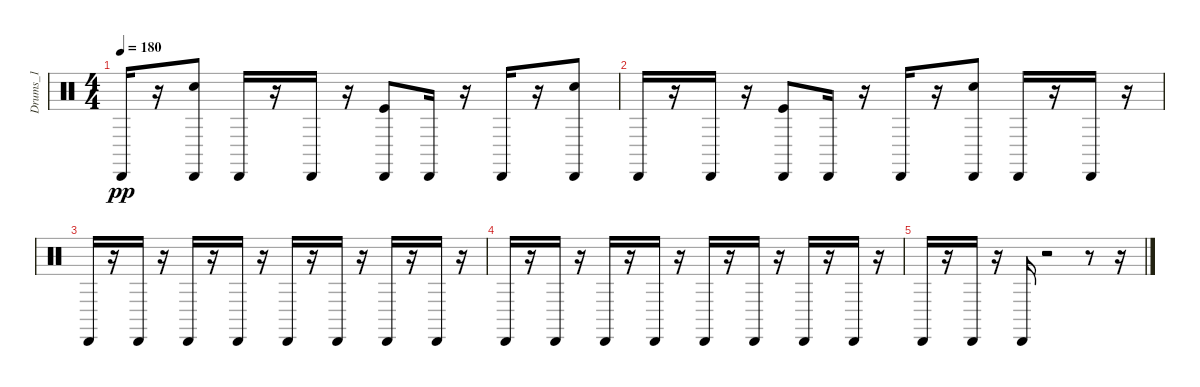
\track ("Drums_1" "Drums_1") {instrument percussion}
\staff {score}
\articulation defaults
\ts (4 4)
\tempo 180
\clef neutral
\ks c "Cabasa (hit)".16{dy pp}
r.16 ("Snare (hit) 2" "Cabasa (hit)").8 "Cabasa (hit)".16 r.16 "Cabasa (hit)".16 r.16 ("Kick (hit)" "Cabasa (hit)").8 "Cabasa (hit)".16 r.16 "Cabasa (hit)".16 r.16 ("Snare (hit) 2" "Cabasa (hit)").8 |
"Cabasa (hit)".16 r.16 "Cabasa (hit)".16 r.16 ("Kick (hit)" "Cabasa (hit)").8 "Cabasa (hit)".16 r.16 "Cabasa (hit)".16 r.16 ("Snare (hit) 2" "Cabasa (hit)").8 "Cabasa (hit)".16 r.16 "Cabasa (hit)".16 r.16 |
"Cabasa (hit)".16 r.16 "Cabasa (hit)".16 r.16 "Cabasa (hit)".16 r.16 "Cabasa (hit)".16 r.16 "Cabasa (hit)".16 r.16 "Cabasa (hit)".16 r.16 "Cabasa (hit)".16 r.16 "Cabasa (hit)".16 r.16 |
"Cabasa (hit)".16 r.16 "Cabasa (hit)".16 r.16 "Cabasa (hit)".16 r.16 "Cabasa (hit)".16 r.16 "Cabasa (hit)".16 r.16 "Cabasa (hit)".16 r.16 "Cabasa (hit)".16 r.16 "Cabasa (hit)".16 r.16 |
"Cabasa (hit)".16 r.16 "Cabasa (hit)".16 r.16 "Cabasa (hit)".16 r.2 r.8 r.16
